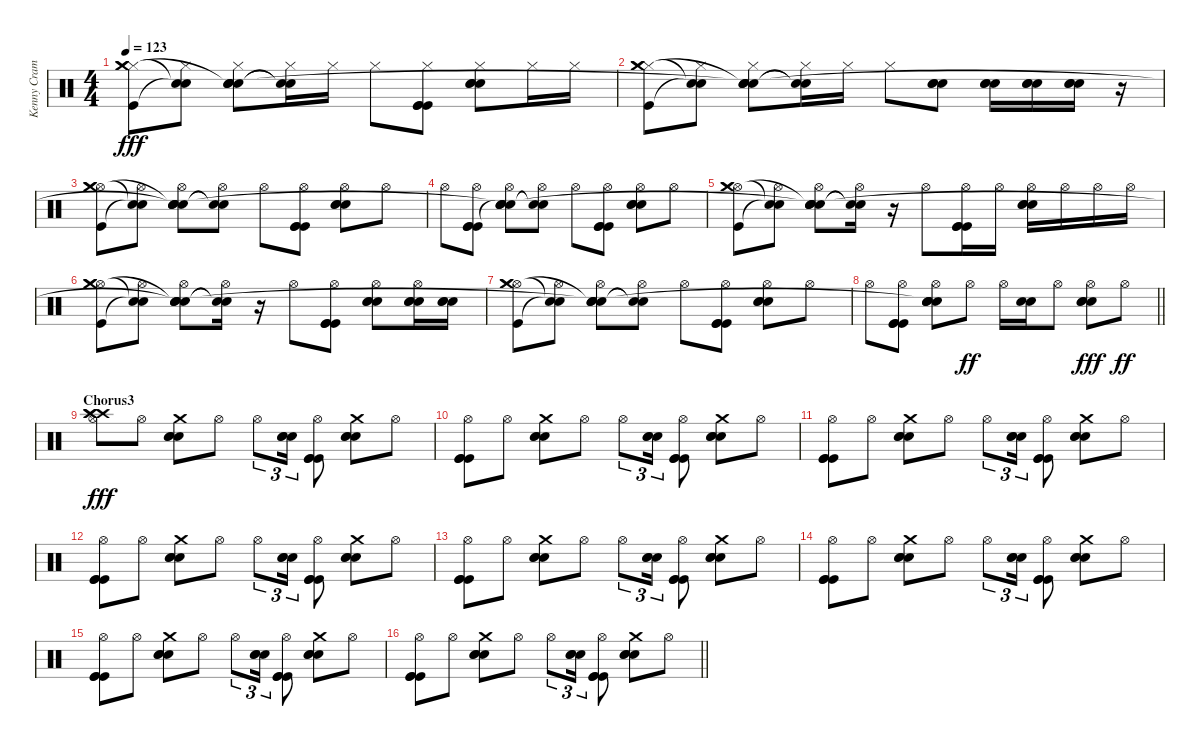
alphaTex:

\track ("Kenny Cramme - Drums" "Kenny Cram") {instrument percussion}
\staff {score}
\articulation defaults
\ts (4 4)
\tempo 123
\clef neutral
\ks c
("Hi-Hat (closed)" "Kick (hit)" "Crash medium (hit)" "Crash medium (hit)").8{dy fff} ("Hi-Hat (closed)" "Snare (hit)"{t} "Snare (hit)"{t}).8 ("Hi-Hat (closed)" "Snare (hit) 2" "Snare (hit) 2" "Snare (hit) 2"{t} "Snare (hit)"{t}).8 ("Hi-Hat (closed)" "Snare (hit)"{t} "Snare (hit)"{t}).16 "Hi-Hat (closed)".16 "Hi-Hat (closed)".8 ("Hi-Hat (closed)" "Kick (hit)" "Kick (hit)" "Kick (hit)").8 ("Hi-Hat (closed)" "Snare (hit) 2" "Snare (hit) 2" "Snare (hit) 2").8 "Hi-Hat (closed)".16 "Hi-Hat (closed)".16 |
("Hi-Hat (closed)" "Kick (hit)" "Crash medium (hit)" "Crash medium (hit)").8 ("Hi-Hat (closed)" "Snare (hit)"{t} "Snare (hit)"{t}).8 ("Hi-Hat (closed)" "Snare (hit) 2" "Snare (hit) 2" "Snare (hit) 2"{t} "Snare (hit)"{t}).8 ("Hi-Hat (closed)" "Snare (hit)"{t} "Snare (hit)"{t}).16 "Hi-Hat (closed)".16 "Hi-Hat (closed)".8 ("Snare (hit) 2" "Snare (hit) 2" "Snare (hit) 2").8 ("Snare (hit) 2" "Snare (hit) 2" "Snare (hit) 2").16 ("Snare (hit) 2" "Snare (hit) 2" "Snare (hit) 2").16 ("Snare (hit) 2" "Snare (hit) 2" "Snare (hit) 2").16 r.16 |
("Hi-Hat (open)" "Kick (hit)" "Crash medium (hit)" "Crash medium (hit)").8 ("Hi-Hat (open)" "Snare (hit)"{t} "Snare (hit)"{t}).8 ("Hi-Hat (open)" "Snare (hit) 2" "Snare (hit) 2" "Snare (hit) 2"{t} "Snare (hit)"{t}).8 ("Hi-Hat (open)" "Snare (hit)"{t} "Snare (hit)"{t}).8 "Hi-Hat (open)".8 ("Hi-Hat (open)" "Kick (hit)" "Kick (hit)" "Kick (hit)").8 ("Hi-Hat (open)" "Snare (hit) 2" "Snare (hit) 2" "Snare (hit) 2").8 "Hi-Hat (open)".8 |
"Hi-Hat (open)".8 ("Hi-Hat (open)" "Kick (hit)" "Kick (hit)" "Kick (hit)").8 ("Hi-Hat (open)" "Snare (hit) 2" "Snare (hit) 2" "Snare (hit) 2"{t} "Snare (hit)"{t}).8 ("Hi-Hat (open)" "Snare (hit)"{t} "Snare (hit)"{t}).8 "Hi-Hat (open)".8 ("Hi-Hat (open)" "Kick (hit)" "Kick (hit)" "Kick (hit)").8 ("Hi-Hat (open)" "Snare (hit) 2" "Snare (hit) 2" "Snare (hit) 2").8 "Hi-Hat (open)".8 |
("Hi-Hat (open)" "Kick (hit)" "Crash medium (hit)" "Crash medium (hit)").8 ("Hi-Hat (open)" "Snare (hit)"{t} "Snare (hit)"{t}).8 ("Hi-Hat (open)" "Snare (hit) 2" "Snare (hit) 2" "Snare (hit) 2"{t} "Snare (hit)"{t}).8 ("Hi-Hat (open)" "Snare (hit)"{t} "Snare (hit)"{t}).16 r.16 "Hi-Hat (open)".8 ("Hi-Hat (open)" "Kick (hit)" "Kick (hit)" "Kick (hit)").16 "Hi-Hat (open)".16 ("Hi-Hat (open)" "Snare (hit) 2" "Snare (hit) 2" "Snare (hit) 2").16 "Hi-Hat (open)".16 "Hi-Hat (open)".16 "Hi-Hat (open)".16 |
("Hi-Hat (open)" "Kick (hit)" "Crash medium (hit)" "Crash medium (hit)").8 ("Hi-Hat (open)" "Snare (hit)"{t} "Snare (hit)"{t}).8 ("Hi-Hat (open)" "Snare (hit) 2" "Snare (hit) 2" "Snare (hit) 2"{t} "Snare (hit)"{t}).8 ("Hi-Hat (open)" "Snare (hit)"{t} "Snare (hit)"{t}).16 r.16 "Hi-Hat (open)".8 ("Hi-Hat (open)" "Kick (hit)" "Kick (hit)" "Kick (hit)").8 ("Hi-Hat (open)" "Snare (hit) 2" "Snare (hit) 2" "Snare (hit) 2").8 ("Hi-Hat (open)" "Snare (hit) 2" "Snare (hit) 2" "Snare (hit) 2").16 ("Snare (hit) 2" "Snare (hit) 2" "Snare (hit) 2").16 |
("Hi-Hat (open)" "Kick (hit)" "Crash medium (hit)" "Crash medium (hit)").8 ("Hi-Hat (open)" "Snare (hit)"{t} "Snare (hit)"{t}).8 ("Hi-Hat (open)" "Snare (hit) 2" "Snare (hit) 2" "Snare (hit) 2"{t} "Snare (hit)"{t}).8 ("Hi-Hat (open)" "Snare (hit)"{t} "Snare (hit)"{t}).8 "Hi-Hat (open)".8 ("Hi-Hat (open)" "Kick (hit)" "Kick (hit)" "Kick (hit)").8 ("Hi-Hat (open)" "Snare (hit) 2" "Snare (hit) 2" "Snare (hit) 2").8 "Hi-Hat (open)".8 |
\barLineRight lightlight "Hi-Hat (open)".8
("Hi-Hat (open)" "Kick (hit)" "Kick (hit)" "Kick (hit)").8 ("Hi-Hat (open)" "Snare (hit) 2" "Snare (hit) 2" "Snare (hit) 2" "Snare (hit)"{t}).8 "Hi-Hat (open)".8{dy ff} "Hi-Hat (open)".16 ("Snare (hit) 2" "Snare (hit) 2").16 "Hi-Hat (open)".8 ("Hi-Hat (open)" "Snare (hit) 2" "Snare (hit) 2" "Snare (hit) 2").8{dy fff} "Hi-Hat (open)".8{dy ff} |
\section ("" "Chorus3")
("Hi-Hat (open)" "Crash high (hit)" "Crash high (hit)" "Crash high (hit)").8{dy fff} "Hi-Hat (open)".8 ("Crash medium (hit)" "Snare (hit) 2" "Snare (hit) 2" "Snare (hit) 2").8 "Hi-Hat (open)".8 "Hi-Hat (open)".8{tu (3 2)} ("Snare (hit) 2" "Snare (hit) 2" "Snare (hit) 2").16{tu (3 2)} ("Hi-Hat (open)" "Kick (hit)" "Kick (hit)" "Kick (hit)").8 ("Crash medium (hit)" "Snare (hit) 2" "Snare (hit) 2" "Snare (hit) 2").8 "Hi-Hat (open)".8 |
("Hi-Hat (open)" "Kick (hit)" "Kick (hit)" "Kick (hit)").8 "Hi-Hat (open)".8 ("Crash medium (hit)" "Snare (hit) 2" "Snare (hit) 2" "Snare (hit) 2").8 "Hi-Hat (open)".8 "Hi-Hat (open)".8{tu (3 2)} ("Snare (hit) 2" "Snare (hit) 2" "Snare (hit) 2").16{tu (3 2)} ("Hi-Hat (open)" "Kick (hit)" "Kick (hit)" "Kick (hit)").8 ("Crash medium (hit)" "Snare (hit) 2" "Snare (hit) 2" "Snare (hit) 2").8 "Hi-Hat (open)".8 |
("Hi-Hat (open)" "Kick (hit)" "Kick (hit)" "Kick (hit)").8 "Hi-Hat (open)".8 ("Crash medium (hit)" "Snare (hit) 2" "Snare (hit) 2" "Snare (hit) 2").8 "Hi-Hat (open)".8 "Hi-Hat (open)".8{tu (3 2)} ("Snare (hit) 2" "Snare (hit) 2" "Snare (hit) 2").16{tu (3 2)} ("Hi-Hat (open)" "Kick (hit)" "Kick (hit)" "Kick (hit)").8 ("Crash medium (hit)" "Snare (hit) 2" "Snare (hit) 2" "Snare (hit) 2").8 "Hi-Hat (open)".8 |
("Hi-Hat (open)" "Kick (hit)" "Kick (hit)" "Kick (hit)").8 "Hi-Hat (open)".8 ("Crash medium (hit)" "Snare (hit) 2" "Snare (hit) 2" "Snare (hit) 2").8 "Hi-Hat (open)".8 "Hi-Hat (open)".8{tu (3 2)} ("Snare (hit) 2" "Snare (hit) 2" "Snare (hit) 2").16{tu (3 2)} ("Hi-Hat (open)" "Kick (hit)" "Kick (hit)" "Kick (hit)").8 ("Crash medium (hit)" "Snare (hit) 2" "Snare (hit) 2" "Snare (hit) 2").8 "Hi-Hat (open)".8 |
("Hi-Hat (open)" "Kick (hit)" "Kick (hit)" "Kick (hit)").8 "Hi-Hat (open)".8 ("Crash medium (hit)" "Snare (hit) 2" "Snare (hit) 2" "Snare (hit) 2").8 "Hi-Hat (open)".8 "Hi-Hat (open)".8{tu (3 2)} ("Snare (hit) 2" "Snare (hit) 2" "Snare (hit) 2").16{tu (3 2)} ("Hi-Hat (open)" "Kick (hit)" "Kick (hit)" "Kick (hit)").8 ("Crash medium (hit)" "Snare (hit) 2" "Snare (hit) 2" "Snare (hit) 2").8 "Hi-Hat (open)".8 |
("Hi-Hat (open)" "Kick (hit)" "Kick (hit)" "Kick (hit)").8 "Hi-Hat (open)".8 ("Crash medium (hit)" "Snare (hit) 2" "Snare (hit) 2" "Snare (hit) 2").8 "Hi-Hat (open)".8 "Hi-Hat (open)".8{tu (3 2)} ("Snare (hit) 2" "Snare (hit) 2" "Snare (hit) 2").16{tu (3 2)} ("Hi-Hat (open)" "Kick (hit)" "Kick (hit)" "Kick (hit)").8 ("Crash medium (hit)" "Snare (hit) 2" "Snare (hit) 2" "Snare (hit) 2").8 "Hi-Hat (open)".8 |
("Hi-Hat (open)" "Kick (hit)" "Kick (hit)" "Kick (hit)").8 "Hi-Hat (open)".8 ("Crash medium (hit)" "Snare (hit) 2" "Snare (hit) 2" "Snare (hit) 2").8 "Hi-Hat (open)".8 "Hi-Hat (open)".8{tu (3 2)} ("Snare (hit) 2" "Snare (hit) 2" "Snare (hit) 2").16{tu (3 2)} ("Hi-Hat (open)" "Kick (hit)" "Kick (hit)" "Kick (hit)").8 ("Crash medium (hit)" "Snare (hit) 2" "Snare (hit) 2" "Snare (hit) 2").8 "Hi-Hat (open)".8 |
\barLineRight lightlight
("Hi-Hat (open)" "Kick (hit)" "Kick (hit)" "Kick (hit)").8 "Hi-Hat (open)".8 ("Crash medium (hit)" "Snare (hit) 2" "Snare (hit) 2" "Snare (hit) 2").8 "Hi-Hat (open)".8 "Hi-Hat (open)".8{tu (3 2)} ("Snare (hit) 2" "Snare (hit) 2" "Snare (hit) 2").16{tu (3 2)} ("Hi-Hat (open)" "Kick (hit)" "Kick (hit)" "Kick (hit)").8 ("Crash medium (hit)" "Snare (hit) 2" "Snare (hit) 2" "Snare (hit) 2").8 "Hi-Hat (open)".8
